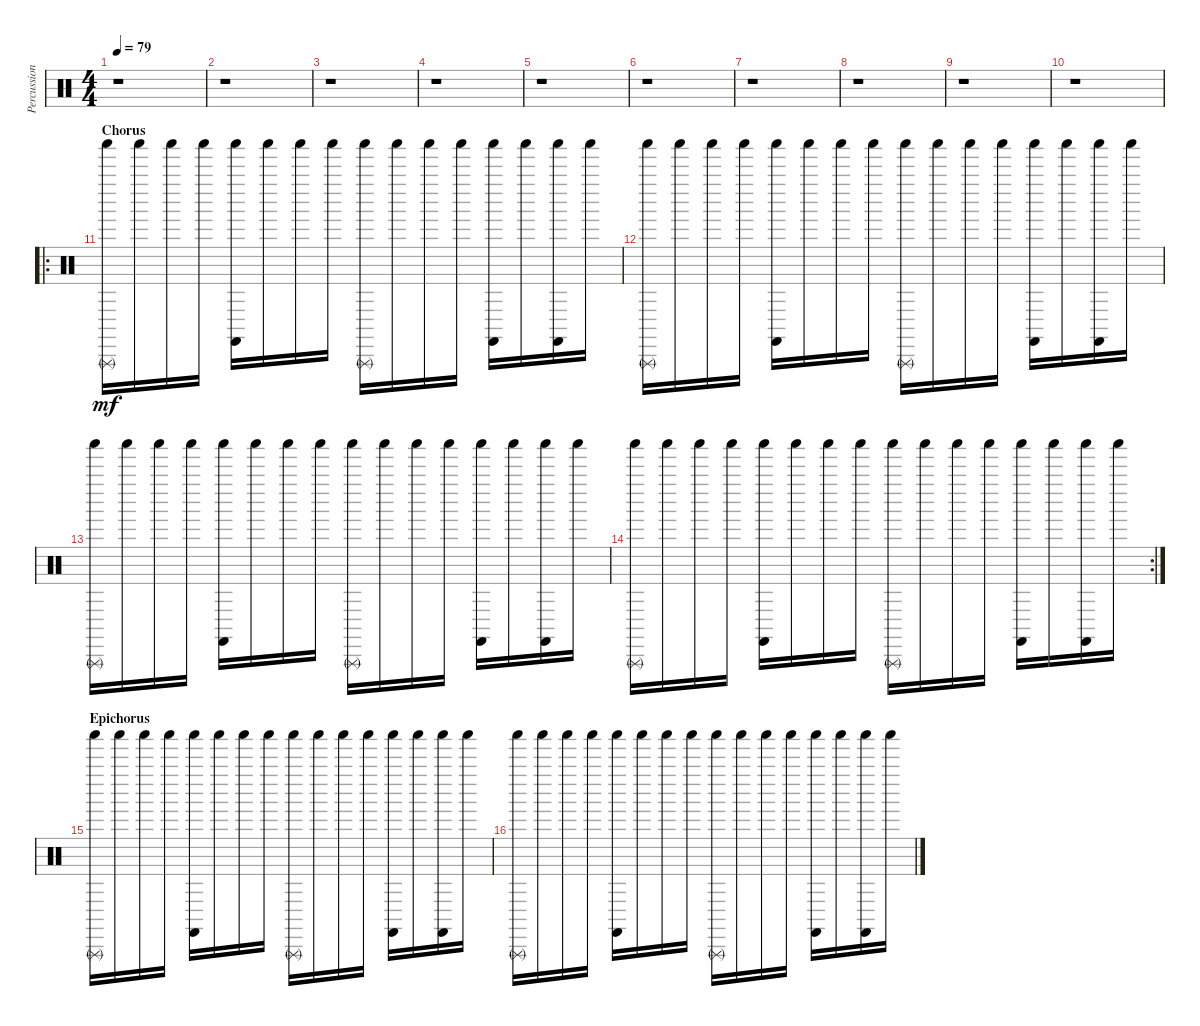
\track ("Percussion" "Percussion") {instrument percussion}
\staff {score}
\articulation defaults
\ts (4 4)
\tempo 79
\clef neutral
\ks c
r.1{dy mf} |
r.1 |
r.1 |
r.1 |
r.1 |
r.1 |
r.1 |
r.1 |
r.1 |
r.1 |
\ro
\section ("" "Chorus")
("Shaker (hit)" "Triangle (rnute)").16 "Shaker (hit)".16 "Shaker (hit)".16 "Shaker (hit)".16 ("Shaker (hit)" "Castanets (hit)").16 "Shaker (hit)".16 "Shaker (hit)".16 "Shaker (hit)".16 ("Shaker (hit)" "Triangle (rnute)").16 "Shaker (hit)".16 "Shaker (hit)".16 "Shaker (hit)".16 ("Shaker (hit)" "Castanets (hit)").16 "Shaker (hit)".16 ("Shaker (hit)" "Castanets (hit)").16 "Shaker (hit)".16 |
("Shaker (hit)" "Triangle (rnute)").16 "Shaker (hit)".16 "Shaker (hit)".16 "Shaker (hit)".16 ("Shaker (hit)" "Castanets (hit)").16 "Shaker (hit)".16 "Shaker (hit)".16 "Shaker (hit)".16 ("Shaker (hit)" "Triangle (rnute)").16 "Shaker (hit)".16 "Shaker (hit)".16 "Shaker (hit)".16 ("Shaker (hit)" "Castanets (hit)").16 "Shaker (hit)".16 ("Shaker (hit)" "Castanets (hit)").16 "Shaker (hit)".16 |
("Shaker (hit)" "Triangle (rnute)").16 "Shaker (hit)".16 "Shaker (hit)".16 "Shaker (hit)".16 ("Shaker (hit)" "Castanets (hit)").16 "Shaker (hit)".16 "Shaker (hit)".16 "Shaker (hit)".16 ("Shaker (hit)" "Triangle (rnute)").16 "Shaker (hit)".16 "Shaker (hit)".16 "Shaker (hit)".16 ("Shaker (hit)" "Castanets (hit)").16 "Shaker (hit)".16 ("Shaker (hit)" "Castanets (hit)").16 "Shaker (hit)".16 |
\rc 2
("Shaker (hit)" "Triangle (rnute)").16 "Shaker (hit)".16 "Shaker (hit)".16 "Shaker (hit)".16 ("Shaker (hit)" "Castanets (hit)").16 "Shaker (hit)".16 "Shaker (hit)".16 "Shaker (hit)".16 ("Shaker (hit)" "Triangle (rnute)").16 "Shaker (hit)".16 "Shaker (hit)".16 "Shaker (hit)".16 ("Shaker (hit)" "Castanets (hit)").16 "Shaker (hit)".16 ("Shaker (hit)" "Castanets (hit)").16 "Shaker (hit)".16 |
\section ("" "Epichorus")
("Shaker (hit)" "Triangle (rnute)").16 "Shaker (hit)".16 "Shaker (hit)".16 "Shaker (hit)".16 ("Shaker (hit)" "Castanets (hit)").16 "Shaker (hit)".16 "Shaker (hit)".16 "Shaker (hit)".16 ("Shaker (hit)" "Triangle (rnute)").16 "Shaker (hit)".16 "Shaker (hit)".16 "Shaker (hit)".16 ("Shaker (hit)" "Castanets (hit)").16 "Shaker (hit)".16 ("Shaker (hit)" "Castanets (hit)").16 "Shaker (hit)".16 |
("Shaker (hit)" "Triangle (rnute)").16 "Shaker (hit)".16 "Shaker (hit)".16 "Shaker (hit)".16 ("Shaker (hit)" "Castanets (hit)").16 "Shaker (hit)".16 "Shaker (hit)".16 "Shaker (hit)".16 ("Shaker (hit)" "Triangle (rnute)").16 "Shaker (hit)".16 "Shaker (hit)".16 "Shaker (hit)".16 ("Shaker (hit)" "Castanets (hit)").16 "Shaker (hit)".16 ("Shaker (hit)" "Castanets (hit)").16 "Shaker (hit)".16
